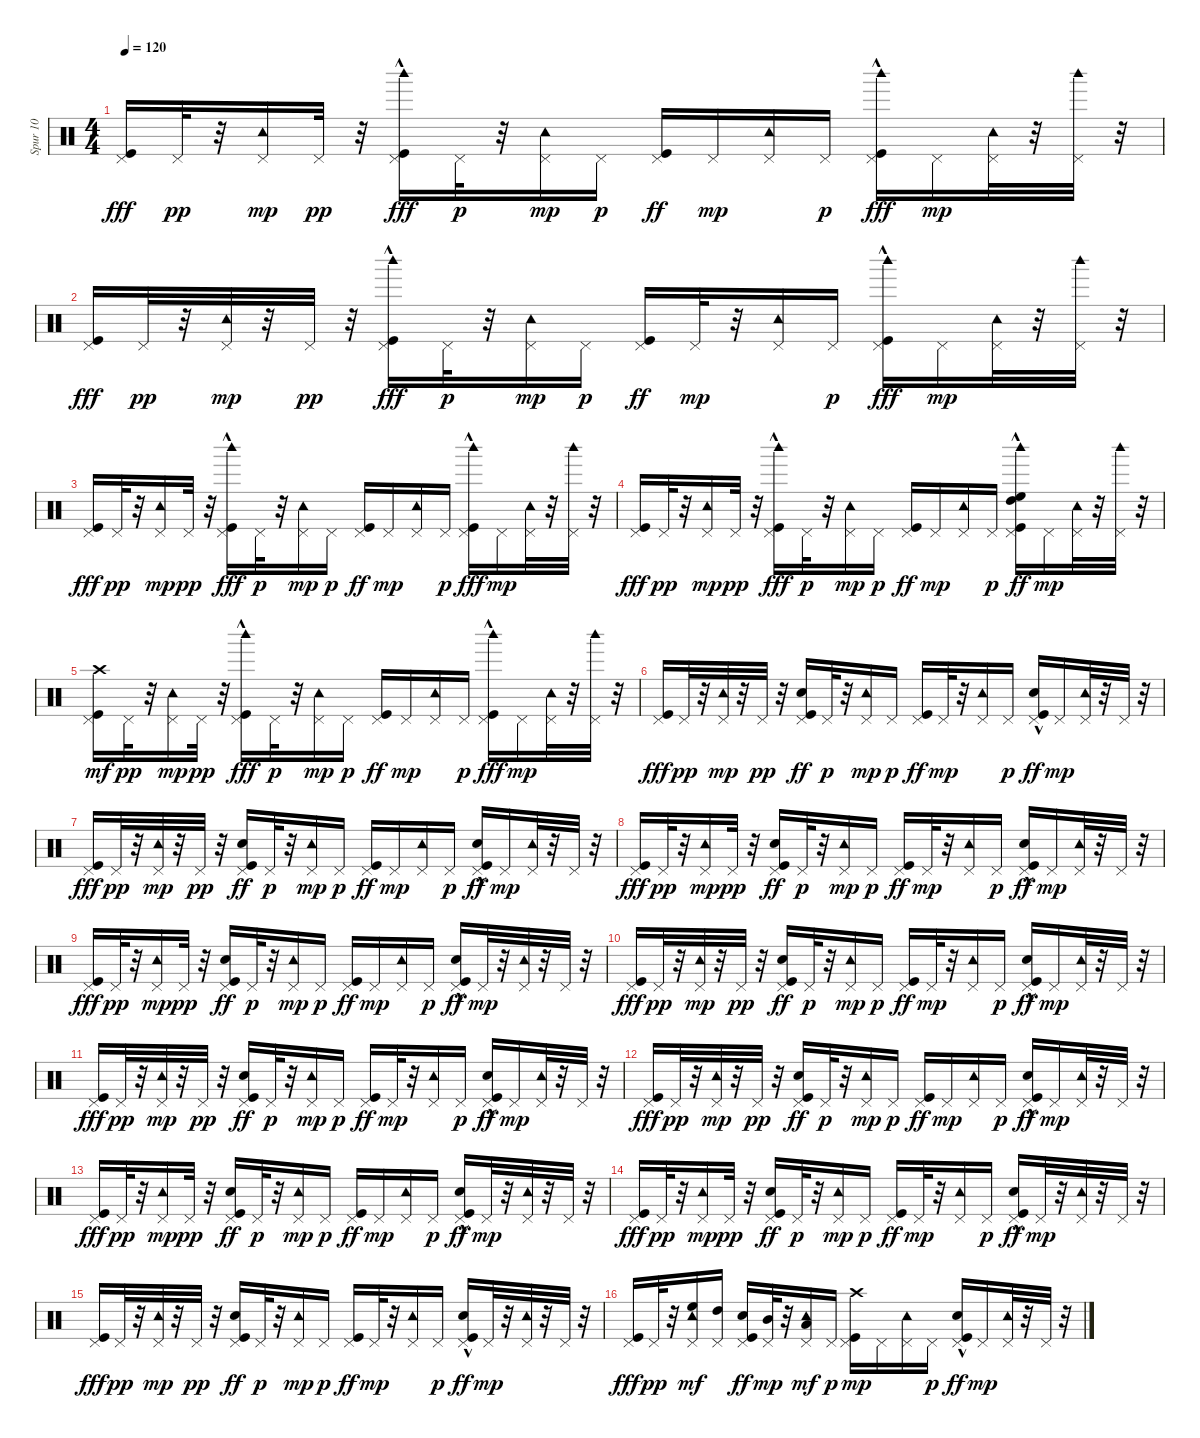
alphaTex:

\track ("Spur 10" "Spur 10") {instrument percussion}
\staff {score}
\articulation defaults
\ts (4 4)
\tempo 120
\clef neutral
\ks c
("Pedal Hi-Hat (hit)" "Kick (hit)").16{dy fff} "Pedal Hi-Hat (hit)".32{dy pp} r.32 ("Pedal Hi-Hat (hit)" "Tambourine (hit)").16{dy mp} "Pedal Hi-Hat (hit)".32{dy pp} r.32 ("Kick (hit)" "Pedal Hi-Hat (hit)" "Woodblock high (hit)"{hac}).16{dy fff} "Pedal Hi-Hat (hit)".32{dy p} r.32 ("Pedal Hi-Hat (hit)" "Tambourine (hit)").16{dy mp} "Pedal Hi-Hat (hit)".16{dy p} ("Kick (hit)" "Pedal Hi-Hat (hit)").16{dy ff} "Pedal Hi-Hat (hit)".16{dy mp} ("Pedal Hi-Hat (hit)" "Tambourine (hit)").16 "Pedal Hi-Hat (hit)".16{dy p} ("Kick (hit)"{hac} "Pedal Hi-Hat (hit)" "Woodblock high (hit)").16{dy fff} "Pedal Hi-Hat (hit)".16{dy mp} ("Pedal Hi-Hat (hit)" "Tambourine (hit)").32 r.32 ("Pedal Hi-Hat (hit)" "Woodblock high (hit)").32 r.32 |
("Pedal Hi-Hat (hit)" "Kick (hit)").16{dy fff} "Pedal Hi-Hat (hit)".32{dy pp} r.32 ("Pedal Hi-Hat (hit)" "Tambourine (hit)").32{dy mp} r.32 "Pedal Hi-Hat (hit)".32{dy pp} r.32 ("Kick (hit)" "Pedal Hi-Hat (hit)" "Woodblock high (hit)"{hac}).16{dy fff} "Pedal Hi-Hat (hit)".32{dy p} r.32 ("Pedal Hi-Hat (hit)" "Tambourine (hit)").16{dy mp} "Pedal Hi-Hat (hit)".16{dy p} ("Kick (hit)" "Pedal Hi-Hat (hit)").16{dy ff} "Pedal Hi-Hat (hit)".32{dy mp} r.32 ("Pedal Hi-Hat (hit)" "Tambourine (hit)").16 "Pedal Hi-Hat (hit)".16{dy p} ("Kick (hit)"{hac} "Pedal Hi-Hat (hit)" "Woodblock high (hit)").16{dy fff} "Pedal Hi-Hat (hit)".16{dy mp} ("Pedal Hi-Hat (hit)" "Tambourine (hit)").32 r.32 ("Pedal Hi-Hat (hit)" "Woodblock high (hit)").32 r.32 |
("Pedal Hi-Hat (hit)" "Kick (hit)").16{dy fff} "Pedal Hi-Hat (hit)".32{dy pp} r.32 ("Pedal Hi-Hat (hit)" "Tambourine (hit)").16{dy mp} "Pedal Hi-Hat (hit)".32{dy pp} r.32 ("Kick (hit)" "Pedal Hi-Hat (hit)" "Woodblock high (hit)"{hac}).16{dy fff} "Pedal Hi-Hat (hit)".32{dy p} r.32 ("Pedal Hi-Hat (hit)" "Tambourine (hit)").16{dy mp} "Pedal Hi-Hat (hit)".16{dy p} ("Kick (hit)" "Pedal Hi-Hat (hit)").16{dy ff} "Pedal Hi-Hat (hit)".16{dy mp} ("Pedal Hi-Hat (hit)" "Tambourine (hit)").16 "Pedal Hi-Hat (hit)".16{dy p} ("Kick (hit)"{hac} "Pedal Hi-Hat (hit)" "Woodblock high (hit)").16{dy fff} "Pedal Hi-Hat (hit)".16{dy mp} ("Pedal Hi-Hat (hit)" "Tambourine (hit)").32 r.32 ("Pedal Hi-Hat (hit)" "Woodblock high (hit)").32 r.32 |
("Pedal Hi-Hat (hit)" "Kick (hit)").16{dy fff} "Pedal Hi-Hat (hit)".32{dy pp} r.32 ("Pedal Hi-Hat (hit)" "Tambourine (hit)").16{dy mp} "Pedal Hi-Hat (hit)".32{dy pp} r.32 ("Kick (hit)" "Pedal Hi-Hat (hit)" "Woodblock high (hit)"{hac}).16{dy fff} "Pedal Hi-Hat (hit)".32{dy p} r.32 ("Pedal Hi-Hat (hit)" "Tambourine (hit)").16{dy mp} "Pedal Hi-Hat (hit)".16{dy p} ("Kick (hit)" "Pedal Hi-Hat (hit)").16{dy ff} "Pedal Hi-Hat (hit)".16{dy mp} ("Pedal Hi-Hat (hit)" "Tambourine (hit)").16 "Pedal Hi-Hat (hit)".16{dy p} ("Kick (hit)"{hac} "Pedal Hi-Hat (hit)" "Woodblock high (hit)" "High Floor Tom (hit)" "High Tom (hit)"{hac}).16{dy ff} "Pedal Hi-Hat (hit)".16{dy mp} ("Pedal Hi-Hat (hit)" "Tambourine (hit)").32 r.32 ("Pedal Hi-Hat (hit)" "Woodblock high (hit)").32 r.32 |
("Pedal Hi-Hat (hit)" "Kick (hit)" "Crash high (hit)").16{dy mf} "Pedal Hi-Hat (hit)".32{dy pp} r.32 ("Pedal Hi-Hat (hit)" "Tambourine (hit)").16{dy mp} "Pedal Hi-Hat (hit)".32{dy pp} r.32 ("Kick (hit)" "Pedal Hi-Hat (hit)" "Woodblock high (hit)"{hac}).16{dy fff} "Pedal Hi-Hat (hit)".32{dy p} r.32 ("Pedal Hi-Hat (hit)" "Tambourine (hit)").16{dy mp} "Pedal Hi-Hat (hit)".16{dy p} ("Kick (hit)" "Pedal Hi-Hat (hit)").16{dy ff} "Pedal Hi-Hat (hit)".16{dy mp} ("Pedal Hi-Hat (hit)" "Tambourine (hit)").16 "Pedal Hi-Hat (hit)".16{dy p} ("Kick (hit)"{hac} "Pedal Hi-Hat (hit)" "Woodblock high (hit)").16{dy fff} "Pedal Hi-Hat (hit)".16{dy mp} ("Pedal Hi-Hat (hit)" "Tambourine (hit)").32 r.32 ("Pedal Hi-Hat (hit)" "Woodblock high (hit)").32 r.32 |
("Pedal Hi-Hat (hit)" "Kick (hit)").16{dy fff} "Pedal Hi-Hat (hit)".32{dy pp} r.32 ("Pedal Hi-Hat (hit)" "Tambourine (hit)").32{dy mp} r.32 "Pedal Hi-Hat (hit)".32{dy pp} r.32 ("Kick (hit)" "Pedal Hi-Hat (hit)" "Snare (hit) 2").16{dy ff} "Pedal Hi-Hat (hit)".32{dy p} r.32 ("Pedal Hi-Hat (hit)" "Tambourine (hit)").16{dy mp} "Pedal Hi-Hat (hit)".16{dy p} ("Kick (hit)" "Pedal Hi-Hat (hit)").16{dy ff} "Pedal Hi-Hat (hit)".32{dy mp} r.32 ("Pedal Hi-Hat (hit)" "Tambourine (hit)").16 "Pedal Hi-Hat (hit)".16{dy p} ("Kick (hit)"{hac} "Pedal Hi-Hat (hit)" "Snare (hit) 2"{hac}).16{dy ff} "Pedal Hi-Hat (hit)".16{dy mp} ("Pedal Hi-Hat (hit)" "Tambourine (hit)").32 r.32 "Pedal Hi-Hat (hit)".32 r.32 |
("Pedal Hi-Hat (hit)" "Kick (hit)").16{dy fff} "Pedal Hi-Hat (hit)".32{dy pp} r.32 ("Pedal Hi-Hat (hit)" "Tambourine (hit)").32{dy mp} r.32 "Pedal Hi-Hat (hit)".32{dy pp} r.32 ("Kick (hit)" "Pedal Hi-Hat (hit)" "Snare (hit) 2").16{dy ff} "Pedal Hi-Hat (hit)".32{dy p} r.32 ("Pedal Hi-Hat (hit)" "Tambourine (hit)").16{dy mp} "Pedal Hi-Hat (hit)".16{dy p} ("Kick (hit)" "Pedal Hi-Hat (hit)").16{dy ff} "Pedal Hi-Hat (hit)".16{dy mp} ("Pedal Hi-Hat (hit)" "Tambourine (hit)").16 "Pedal Hi-Hat (hit)".16{dy p} ("Kick (hit)"{hac} "Pedal Hi-Hat (hit)" "Snare (hit) 2"{hac}).16{dy ff} "Pedal Hi-Hat (hit)".16{dy mp} ("Pedal Hi-Hat (hit)" "Tambourine (hit)").32 r.32 "Pedal Hi-Hat (hit)".32 r.32 |
("Pedal Hi-Hat (hit)" "Kick (hit)").16{dy fff} "Pedal Hi-Hat (hit)".32{dy pp} r.32 ("Pedal Hi-Hat (hit)" "Tambourine (hit)").16{dy mp} "Pedal Hi-Hat (hit)".32{dy pp} r.32 ("Kick (hit)" "Pedal Hi-Hat (hit)" "Snare (hit) 2").16{dy ff} "Pedal Hi-Hat (hit)".32{dy p} r.32 ("Pedal Hi-Hat (hit)" "Tambourine (hit)").16{dy mp} "Pedal Hi-Hat (hit)".16{dy p} ("Kick (hit)" "Pedal Hi-Hat (hit)").16{dy ff} "Pedal Hi-Hat (hit)".32{dy mp} r.32 ("Pedal Hi-Hat (hit)" "Tambourine (hit)").16 "Pedal Hi-Hat (hit)".16{dy p} ("Kick (hit)"{hac} "Pedal Hi-Hat (hit)" "Snare (hit) 2"{hac}).16{dy ff} "Pedal Hi-Hat (hit)".16{dy mp} ("Pedal Hi-Hat (hit)" "Tambourine (hit)").32 r.32 "Pedal Hi-Hat (hit)".32 r.32 |
("Pedal Hi-Hat (hit)" "Kick (hit)").16{dy fff} "Pedal Hi-Hat (hit)".32{dy pp} r.32 ("Pedal Hi-Hat (hit)" "Tambourine (hit)").16{dy mp} "Pedal Hi-Hat (hit)".32{dy pp} r.32 ("Kick (hit)" "Pedal Hi-Hat (hit)" "Snare (hit) 2").16{dy ff} "Pedal Hi-Hat (hit)".32{dy p} r.32 ("Pedal Hi-Hat (hit)" "Tambourine (hit)").16{dy mp} "Pedal Hi-Hat (hit)".16{dy p} ("Kick (hit)" "Pedal Hi-Hat (hit)").16{dy ff} "Pedal Hi-Hat (hit)".16{dy mp} ("Pedal Hi-Hat (hit)" "Tambourine (hit)").16 "Pedal Hi-Hat (hit)".16{dy p} ("Kick (hit)"{hac} "Pedal Hi-Hat (hit)" "Snare (hit) 2"{hac}).16{dy ff} "Pedal Hi-Hat (hit)".32{dy mp} r.32 ("Pedal Hi-Hat (hit)" "Tambourine (hit)").32 r.32 "Pedal Hi-Hat (hit)".32 r.32 |
("Pedal Hi-Hat (hit)" "Kick (hit)").16{dy fff} "Pedal Hi-Hat (hit)".32{dy pp} r.32 ("Pedal Hi-Hat (hit)" "Tambourine (hit)").32{dy mp} r.32 "Pedal Hi-Hat (hit)".32{dy pp} r.32 ("Kick (hit)" "Pedal Hi-Hat (hit)" "Snare (hit) 2").16{dy ff} "Pedal Hi-Hat (hit)".32{dy p} r.32 ("Pedal Hi-Hat (hit)" "Tambourine (hit)").16{dy mp} "Pedal Hi-Hat (hit)".16{dy p} ("Kick (hit)" "Pedal Hi-Hat (hit)").16{dy ff} "Pedal Hi-Hat (hit)".32{dy mp} r.32 ("Pedal Hi-Hat (hit)" "Tambourine (hit)").16 "Pedal Hi-Hat (hit)".16{dy p} ("Kick (hit)"{hac} "Pedal Hi-Hat (hit)" "Snare (hit) 2"{hac}).16{dy ff} "Pedal Hi-Hat (hit)".16{dy mp} ("Pedal Hi-Hat (hit)" "Tambourine (hit)").32 r.32 "Pedal Hi-Hat (hit)".32 r.32 |
("Pedal Hi-Hat (hit)" "Kick (hit)").16{dy fff} "Pedal Hi-Hat (hit)".32{dy pp} r.32 ("Pedal Hi-Hat (hit)" "Tambourine (hit)").32{dy mp} r.32 "Pedal Hi-Hat (hit)".32{dy pp} r.32 ("Kick (hit)" "Pedal Hi-Hat (hit)" "Snare (hit) 2").16{dy ff} "Pedal Hi-Hat (hit)".32{dy p} r.32 ("Pedal Hi-Hat (hit)" "Tambourine (hit)").16{dy mp} "Pedal Hi-Hat (hit)".16{dy p} ("Kick (hit)" "Pedal Hi-Hat (hit)").16{dy ff} "Pedal Hi-Hat (hit)".32{dy mp} r.32 ("Pedal Hi-Hat (hit)" "Tambourine (hit)").16 "Pedal Hi-Hat (hit)".16{dy p} ("Kick (hit)"{hac} "Pedal Hi-Hat (hit)" "Snare (hit) 2"{hac}).16{dy ff} "Pedal Hi-Hat (hit)".16{dy mp} ("Pedal Hi-Hat (hit)" "Tambourine (hit)").32 r.32 "Pedal Hi-Hat (hit)".32 r.32 |
("Pedal Hi-Hat (hit)" "Kick (hit)").16{dy fff} "Pedal Hi-Hat (hit)".32{dy pp} r.32 ("Pedal Hi-Hat (hit)" "Tambourine (hit)").32{dy mp} r.32 "Pedal Hi-Hat (hit)".32{dy pp} r.32 ("Kick (hit)" "Pedal Hi-Hat (hit)" "Snare (hit) 2").16{dy ff} "Pedal Hi-Hat (hit)".32{dy p} r.32 ("Pedal Hi-Hat (hit)" "Tambourine (hit)").16{dy mp} "Pedal Hi-Hat (hit)".16{dy p} ("Kick (hit)" "Pedal Hi-Hat (hit)").16{dy ff} "Pedal Hi-Hat (hit)".16{dy mp} ("Pedal Hi-Hat (hit)" "Tambourine (hit)").16 "Pedal Hi-Hat (hit)".16{dy p} ("Kick (hit)"{hac} "Pedal Hi-Hat (hit)" "Snare (hit) 2"{hac}).16{dy ff} "Pedal Hi-Hat (hit)".16{dy mp} ("Pedal Hi-Hat (hit)" "Tambourine (hit)").32 r.32 "Pedal Hi-Hat (hit)".32 r.32 |
("Pedal Hi-Hat (hit)" "Kick (hit)").16{dy fff} "Pedal Hi-Hat (hit)".32{dy pp} r.32 ("Pedal Hi-Hat (hit)" "Tambourine (hit)").16{dy mp} "Pedal Hi-Hat (hit)".32{dy pp} r.32 ("Kick (hit)" "Pedal Hi-Hat (hit)" "Snare (hit) 2").16{dy ff} "Pedal Hi-Hat (hit)".32{dy p} r.32 ("Pedal Hi-Hat (hit)" "Tambourine (hit)").16{dy mp} "Pedal Hi-Hat (hit)".16{dy p} ("Kick (hit)" "Pedal Hi-Hat (hit)").16{dy ff} "Pedal Hi-Hat (hit)".16{dy mp} ("Pedal Hi-Hat (hit)" "Tambourine (hit)").16 "Pedal Hi-Hat (hit)".16{dy p} ("Kick (hit)"{hac} "Pedal Hi-Hat (hit)" "Snare (hit) 2"{hac}).16{dy ff} "Pedal Hi-Hat (hit)".32{dy mp} r.32 ("Pedal Hi-Hat (hit)" "Tambourine (hit)").32 r.32 "Pedal Hi-Hat (hit)".32 r.32 |
("Pedal Hi-Hat (hit)" "Kick (hit)").16{dy fff} "Pedal Hi-Hat (hit)".32{dy pp} r.32 ("Pedal Hi-Hat (hit)" "Tambourine (hit)").16{dy mp} "Pedal Hi-Hat (hit)".32{dy pp} r.32 ("Kick (hit)" "Pedal Hi-Hat (hit)" "Snare (hit) 2").16{dy ff} "Pedal Hi-Hat (hit)".32{dy p} r.32 ("Pedal Hi-Hat (hit)" "Tambourine (hit)").16{dy mp} "Pedal Hi-Hat (hit)".16{dy p} ("Kick (hit)" "Pedal Hi-Hat (hit)").16{dy ff} "Pedal Hi-Hat (hit)".32{dy mp} r.32 ("Pedal Hi-Hat (hit)" "Tambourine (hit)").16 "Pedal Hi-Hat (hit)".16{dy p} ("Kick (hit)"{hac} "Pedal Hi-Hat (hit)" "Snare (hit) 2"{hac}).16{dy ff} "Pedal Hi-Hat (hit)".32{dy mp} r.32 ("Pedal Hi-Hat (hit)" "Tambourine (hit)").32 r.32 "Pedal Hi-Hat (hit)".32 r.32 |
("Pedal Hi-Hat (hit)" "Kick (hit)").16{dy fff} "Pedal Hi-Hat (hit)".32{dy pp} r.32 ("Pedal Hi-Hat (hit)" "Tambourine (hit)").32{dy mp} r.32 "Pedal Hi-Hat (hit)".32{dy pp} r.32 ("Kick (hit)" "Pedal Hi-Hat (hit)" "Snare (hit) 2").16{dy ff} "Pedal Hi-Hat (hit)".32{dy p} r.32 ("Pedal Hi-Hat (hit)" "Tambourine (hit)").16{dy mp} "Pedal Hi-Hat (hit)".16{dy p} ("Kick (hit)" "Pedal Hi-Hat (hit)").16{dy ff} "Pedal Hi-Hat (hit)".32{dy mp} r.32 ("Pedal Hi-Hat (hit)" "Tambourine (hit)").16 "Pedal Hi-Hat (hit)".16{dy p} ("Kick (hit)"{hac} "Pedal Hi-Hat (hit)" "Snare (hit) 2"{hac}).16{dy ff} "Pedal Hi-Hat (hit)".32{dy mp} r.32 ("Pedal Hi-Hat (hit)" "Tambourine (hit)").32 r.32 "Pedal Hi-Hat (hit)".32 r.32 |
("Pedal Hi-Hat (hit)" "Kick (hit)").16{dy fff} "Pedal Hi-Hat (hit)".32{dy pp} r.32 ("Pedal Hi-Hat (hit)" "Tambourine (hit)" "High Floor Tom (hit)").16{dy mf} ("Pedal Hi-Hat (hit)" "High Tom (hit)").16 ("Kick (hit)" "Pedal Hi-Hat (hit)" "Snare (hit) 2").16{dy ff} ("Pedal Hi-Hat (hit)" "Mid Tom (hit)").32{dy mp} r.32 ("Pedal Hi-Hat (hit)" "Tambourine (hit)" "Low Tom (hit)").16{dy mf} "Pedal Hi-Hat (hit)".16{dy p} ("Kick (hit)" "Pedal Hi-Hat (hit)" "Crash high (hit)").16{dy mp} "Pedal Hi-Hat (hit)".16 ("Pedal Hi-Hat (hit)" "Tambourine (hit)").16 "Pedal Hi-Hat (hit)".16{dy p} ("Kick (hit)"{hac} "Pedal Hi-Hat (hit)" "Snare (hit) 2"{hac}).16{dy ff} "Pedal Hi-Hat (hit)".16{dy mp} ("Pedal Hi-Hat (hit)" "Tambourine (hit)").32 r.32 "Pedal Hi-Hat (hit)".32 r.32
